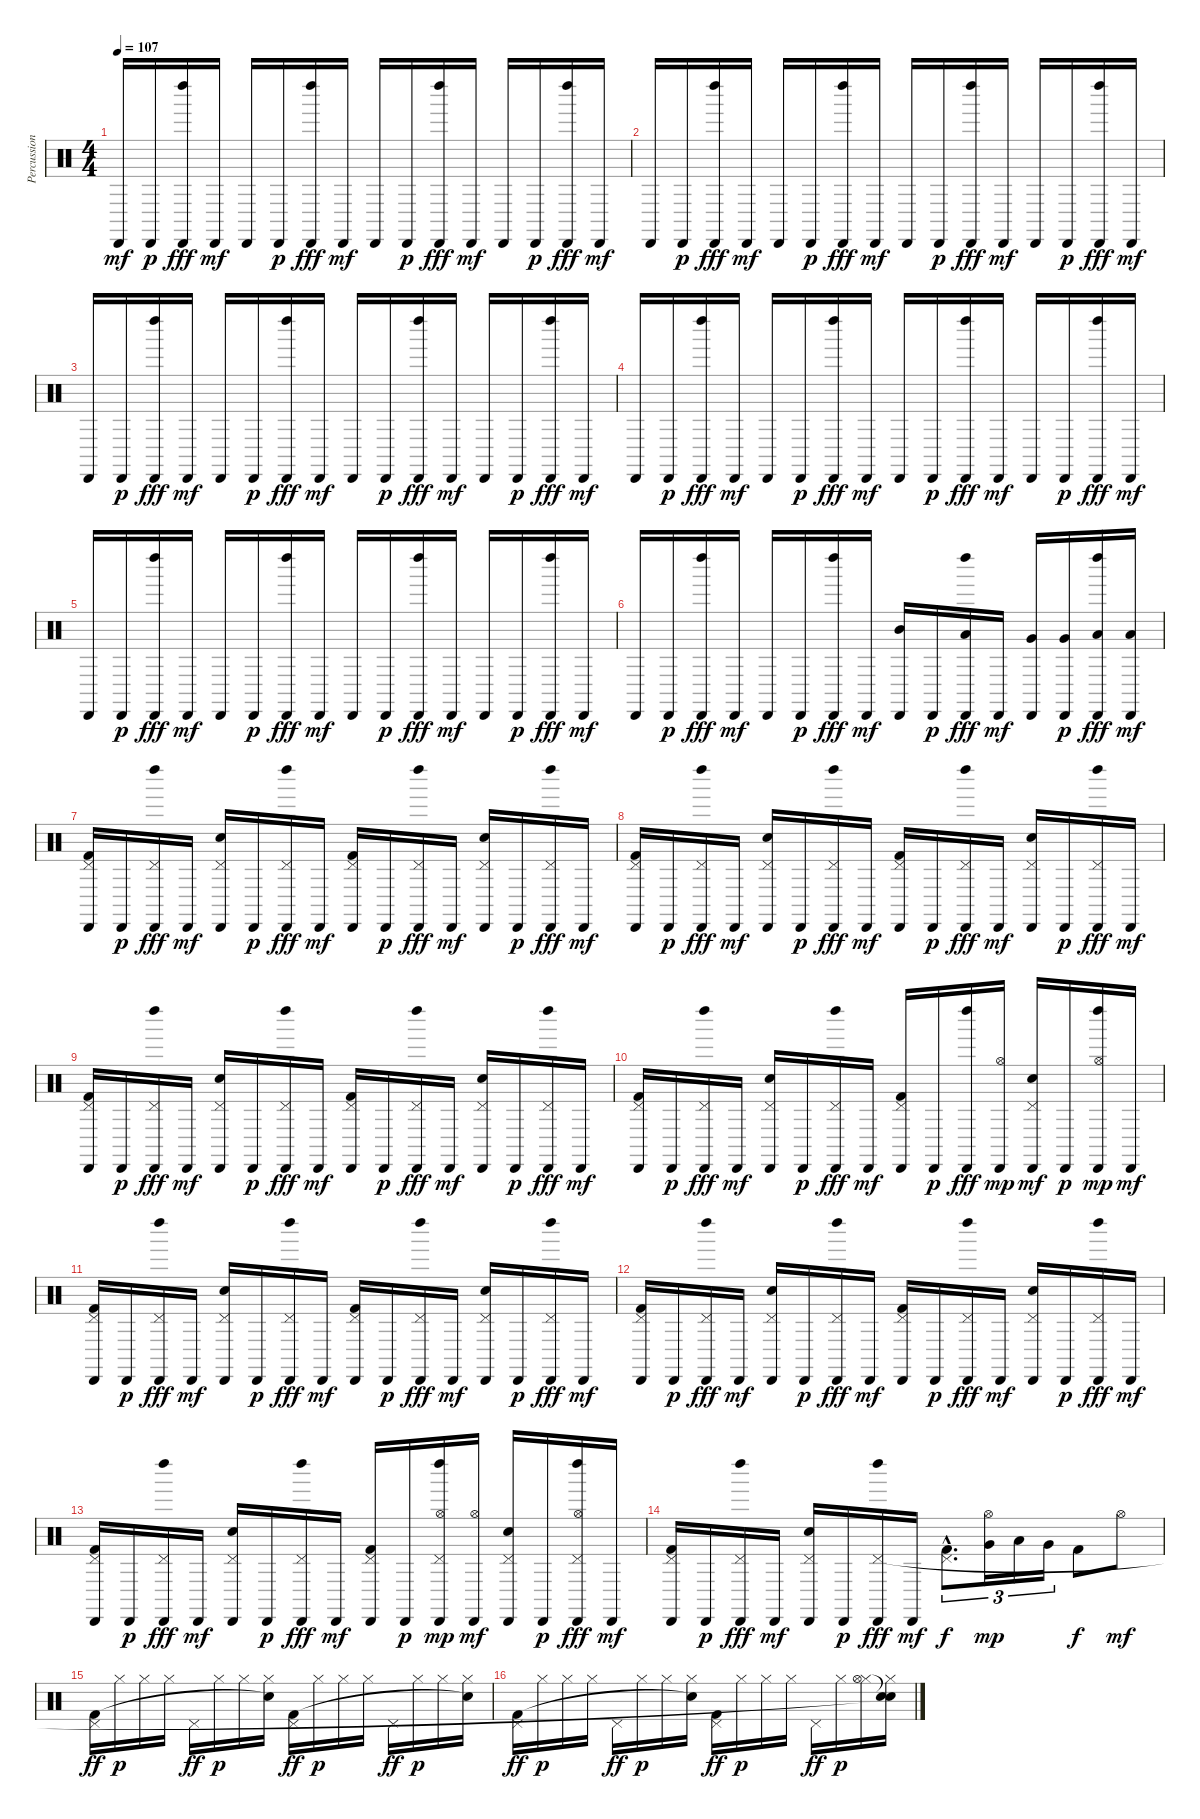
\track ("Percussions" "Percussion") {instrument percussion}
\staff {score}
\articulation defaults
\ts (4 4)
\tempo 107
\clef neutral
\ks c "Cabasa (hit)".16{dy mf} "Cabasa (hit)".16{dy p}
("Cabasa (hit)" "Left Maraca (hit)").16{dy fff} "Cabasa (hit)".16{dy mf} "Cabasa (hit)".16 "Cabasa (hit)".16{dy p} ("Cabasa (hit)" "Left Maraca (hit)").16{dy fff} "Cabasa (hit)".16{dy mf} "Cabasa (hit)".16 "Cabasa (hit)".16{dy p} ("Cabasa (hit)" "Left Maraca (hit)").16{dy fff} "Cabasa (hit)".16{dy mf} "Cabasa (hit)".16 "Cabasa (hit)".16{dy p} ("Cabasa (hit)" "Left Maraca (hit)").16{dy fff} "Cabasa (hit)".16{dy mf} |
"Cabasa (hit)".16 "Cabasa (hit)".16{dy p} ("Cabasa (hit)" "Left Maraca (hit)").16{dy fff} "Cabasa (hit)".16{dy mf} "Cabasa (hit)".16 "Cabasa (hit)".16{dy p} ("Cabasa (hit)" "Left Maraca (hit)").16{dy fff} "Cabasa (hit)".16{dy mf} "Cabasa (hit)".16 "Cabasa (hit)".16{dy p} ("Cabasa (hit)" "Left Maraca (hit)").16{dy fff} "Cabasa (hit)".16{dy mf} "Cabasa (hit)".16 "Cabasa (hit)".16{dy p} ("Cabasa (hit)" "Left Maraca (hit)").16{dy fff} "Cabasa (hit)".16{dy mf} |
"Cabasa (hit)".16 "Cabasa (hit)".16{dy p} ("Cabasa (hit)" "Left Maraca (hit)").16{dy fff} "Cabasa (hit)".16{dy mf} "Cabasa (hit)".16 "Cabasa (hit)".16{dy p} ("Cabasa (hit)" "Left Maraca (hit)").16{dy fff} "Cabasa (hit)".16{dy mf} "Cabasa (hit)".16 "Cabasa (hit)".16{dy p} ("Cabasa (hit)" "Left Maraca (hit)").16{dy fff} "Cabasa (hit)".16{dy mf} "Cabasa (hit)".16 "Cabasa (hit)".16{dy p} ("Cabasa (hit)" "Left Maraca (hit)").16{dy fff} "Cabasa (hit)".16{dy mf} |
"Cabasa (hit)".16 "Cabasa (hit)".16{dy p} ("Cabasa (hit)" "Left Maraca (hit)").16{dy fff} "Cabasa (hit)".16{dy mf} "Cabasa (hit)".16 "Cabasa (hit)".16{dy p} ("Cabasa (hit)" "Left Maraca (hit)").16{dy fff} "Cabasa (hit)".16{dy mf} "Cabasa (hit)".16 "Cabasa (hit)".16{dy p} ("Cabasa (hit)" "Left Maraca (hit)").16{dy fff} "Cabasa (hit)".16{dy mf} "Cabasa (hit)".16 "Cabasa (hit)".16{dy p} ("Cabasa (hit)" "Left Maraca (hit)").16{dy fff} "Cabasa (hit)".16{dy mf} |
"Cabasa (hit)".16 "Cabasa (hit)".16{dy p} ("Cabasa (hit)" "Left Maraca (hit)").16{dy fff} "Cabasa (hit)".16{dy mf} "Cabasa (hit)".16 "Cabasa (hit)".16{dy p} ("Cabasa (hit)" "Left Maraca (hit)").16{dy fff} "Cabasa (hit)".16{dy mf} "Cabasa (hit)".16 "Cabasa (hit)".16{dy p} ("Cabasa (hit)" "Left Maraca (hit)").16{dy fff} "Cabasa (hit)".16{dy mf} "Cabasa (hit)".16 "Cabasa (hit)".16{dy p} ("Cabasa (hit)" "Left Maraca (hit)").16{dy fff} "Cabasa (hit)".16{dy mf} |
"Cabasa (hit)".16 "Cabasa (hit)".16{dy p} ("Cabasa (hit)" "Left Maraca (hit)").16{dy fff} "Cabasa (hit)".16{dy mf} "Cabasa (hit)".16 "Cabasa (hit)".16{dy p} ("Cabasa (hit)" "Left Maraca (hit)").16{dy fff} "Cabasa (hit)".16{dy mf} ("Cabasa (hit)" "Mid Tom (hit)").16 "Cabasa (hit)".16{dy p} ("Cabasa (hit)" "Left Maraca (hit)" "Low Tom (hit)").16{dy fff} "Cabasa (hit)".16{dy mf} ("Cabasa (hit)" "Very Low Tom (hit)").16 ("Cabasa (hit)" "Very Low Tom (hit)").16{dy p} ("Cabasa (hit)" "Left Maraca (hit)" "Low Floor Tom (hit)").16{dy fff} ("Cabasa (hit)" "Low Floor Tom (hit)").16{dy mf} |
("Cabasa (hit)" "Pedal Hi-Hat (hit)" "Kick (hit) 2").16 "Cabasa (hit)".16{dy p} ("Cabasa (hit)" "Left Maraca (hit)" "Pedal Hi-Hat (hit)").16{dy fff} "Cabasa (hit)".16{dy mf} ("Cabasa (hit)" "Pedal Hi-Hat (hit)" "Snare (hit) 2").16 "Cabasa (hit)".16{dy p} ("Cabasa (hit)" "Left Maraca (hit)" "Pedal Hi-Hat (hit)").16{dy fff} "Cabasa (hit)".16{dy mf} ("Cabasa (hit)" "Pedal Hi-Hat (hit)" "Kick (hit) 2").16 "Cabasa (hit)".16{dy p} ("Cabasa (hit)" "Left Maraca (hit)" "Pedal Hi-Hat (hit)").16{dy fff} "Cabasa (hit)".16{dy mf} ("Cabasa (hit)" "Pedal Hi-Hat (hit)" "Snare (hit) 2").16 "Cabasa (hit)".16{dy p} ("Cabasa (hit)" "Left Maraca (hit)" "Pedal Hi-Hat (hit)").16{dy fff} "Cabasa (hit)".16{dy mf} |
("Cabasa (hit)" "Pedal Hi-Hat (hit)" "Kick (hit) 2").16 "Cabasa (hit)".16{dy p} ("Cabasa (hit)" "Left Maraca (hit)" "Pedal Hi-Hat (hit)").16{dy fff} "Cabasa (hit)".16{dy mf} ("Cabasa (hit)" "Pedal Hi-Hat (hit)" "Snare (hit) 2").16 "Cabasa (hit)".16{dy p} ("Cabasa (hit)" "Left Maraca (hit)" "Pedal Hi-Hat (hit)").16{dy fff} "Cabasa (hit)".16{dy mf} ("Cabasa (hit)" "Pedal Hi-Hat (hit)" "Kick (hit) 2").16 "Cabasa (hit)".16{dy p} ("Cabasa (hit)" "Left Maraca (hit)" "Pedal Hi-Hat (hit)").16{dy fff} "Cabasa (hit)".16{dy mf} ("Cabasa (hit)" "Pedal Hi-Hat (hit)" "Snare (hit) 2").16 "Cabasa (hit)".16{dy p} ("Cabasa (hit)" "Left Maraca (hit)" "Pedal Hi-Hat (hit)").16{dy fff} "Cabasa (hit)".16{dy mf} |
("Cabasa (hit)" "Pedal Hi-Hat (hit)" "Kick (hit) 2").16 "Cabasa (hit)".16{dy p} ("Cabasa (hit)" "Left Maraca (hit)" "Pedal Hi-Hat (hit)").16{dy fff} "Cabasa (hit)".16{dy mf} ("Cabasa (hit)" "Pedal Hi-Hat (hit)" "Snare (hit) 2").16 "Cabasa (hit)".16{dy p} ("Cabasa (hit)" "Left Maraca (hit)" "Pedal Hi-Hat (hit)").16{dy fff} "Cabasa (hit)".16{dy mf} ("Cabasa (hit)" "Pedal Hi-Hat (hit)" "Kick (hit) 2").16 "Cabasa (hit)".16{dy p} ("Cabasa (hit)" "Left Maraca (hit)" "Pedal Hi-Hat (hit)").16{dy fff} "Cabasa (hit)".16{dy mf} ("Cabasa (hit)" "Pedal Hi-Hat (hit)" "Snare (hit) 2").16 "Cabasa (hit)".16{dy p} ("Cabasa (hit)" "Left Maraca (hit)" "Pedal Hi-Hat (hit)").16{dy fff} "Cabasa (hit)".16{dy mf} |
("Cabasa (hit)" "Pedal Hi-Hat (hit)" "Kick (hit) 2").16 "Cabasa (hit)".16{dy p} ("Cabasa (hit)" "Left Maraca (hit)" "Pedal Hi-Hat (hit)").16{dy fff} "Cabasa (hit)".16{dy mf} ("Cabasa (hit)" "Pedal Hi-Hat (hit)" "Snare (hit) 2").16 "Cabasa (hit)".16{dy p} ("Cabasa (hit)" "Left Maraca (hit)" "Pedal Hi-Hat (hit)").16{dy fff} "Cabasa (hit)".16{dy mf} ("Cabasa (hit)" "Pedal Hi-Hat (hit)" "Kick (hit) 2").16 "Cabasa (hit)".16{dy p} ("Cabasa (hit)" "Left Maraca (hit)").16{dy fff} ("Cabasa (hit)" "Hi-Hat (open)").16{dy mp} ("Cabasa (hit)" "Pedal Hi-Hat (hit)" "Snare (hit) 2").16{dy mf} "Cabasa (hit)".16{dy p} ("Cabasa (hit)" "Left Maraca (hit)" "Hi-Hat (open)").16{dy mp} "Cabasa (hit)".16{dy mf} |
("Cabasa (hit)" "Pedal Hi-Hat (hit)" "Kick (hit) 2").16 "Cabasa (hit)".16{dy p} ("Cabasa (hit)" "Left Maraca (hit)" "Pedal Hi-Hat (hit)").16{dy fff} "Cabasa (hit)".16{dy mf} ("Cabasa (hit)" "Pedal Hi-Hat (hit)" "Snare (hit) 2").16 "Cabasa (hit)".16{dy p} ("Cabasa (hit)" "Left Maraca (hit)" "Pedal Hi-Hat (hit)").16{dy fff} "Cabasa (hit)".16{dy mf} ("Cabasa (hit)" "Pedal Hi-Hat (hit)" "Kick (hit) 2").16 "Cabasa (hit)".16{dy p} ("Cabasa (hit)" "Left Maraca (hit)" "Pedal Hi-Hat (hit)").16{dy fff} "Cabasa (hit)".16{dy mf} ("Cabasa (hit)" "Pedal Hi-Hat (hit)" "Snare (hit) 2").16 "Cabasa (hit)".16{dy p} ("Cabasa (hit)" "Left Maraca (hit)" "Pedal Hi-Hat (hit)").16{dy fff} "Cabasa (hit)".16{dy mf} |
("Cabasa (hit)" "Pedal Hi-Hat (hit)" "Kick (hit) 2").16 "Cabasa (hit)".16{dy p} ("Cabasa (hit)" "Left Maraca (hit)" "Pedal Hi-Hat (hit)").16{dy fff} "Cabasa (hit)".16{dy mf} ("Cabasa (hit)" "Pedal Hi-Hat (hit)" "Snare (hit) 2").16 "Cabasa (hit)".16{dy p} ("Cabasa (hit)" "Left Maraca (hit)" "Pedal Hi-Hat (hit)").16{dy fff} "Cabasa (hit)".16{dy mf} ("Cabasa (hit)" "Pedal Hi-Hat (hit)" "Kick (hit) 2").16 "Cabasa (hit)".16{dy p} ("Cabasa (hit)" "Left Maraca (hit)" "Pedal Hi-Hat (hit)").16{dy fff} "Cabasa (hit)".16{dy mf} ("Cabasa (hit)" "Pedal Hi-Hat (hit)" "Snare (hit) 2").16 "Cabasa (hit)".16{dy p} ("Cabasa (hit)" "Left Maraca (hit)" "Pedal Hi-Hat (hit)").16{dy fff} "Cabasa (hit)".16{dy mf} |
("Cabasa (hit)" "Pedal Hi-Hat (hit)" "Kick (hit) 2").16 "Cabasa (hit)".16{dy p} ("Cabasa (hit)" "Left Maraca (hit)" "Pedal Hi-Hat (hit)").16{dy fff} "Cabasa (hit)".16{dy mf} ("Cabasa (hit)" "Pedal Hi-Hat (hit)" "Snare (hit) 2").16 "Cabasa (hit)".16{dy p} ("Cabasa (hit)" "Left Maraca (hit)" "Pedal Hi-Hat (hit)").16{dy fff} "Cabasa (hit)".16{dy mf} ("Cabasa (hit)" "Pedal Hi-Hat (hit)" "Kick (hit) 2").16 "Cabasa (hit)".16{dy p} ("Cabasa (hit)" "Left Maraca (hit)" "Pedal Hi-Hat (hit)" "Hi-Hat (open)").16{dy mp} ("Cabasa (hit)" "Hi-Hat (open)").16{dy mf} ("Cabasa (hit)" "Pedal Hi-Hat (hit)" "Snare (hit) 2").16 "Cabasa (hit)".16{dy p} ("Cabasa (hit)" "Left Maraca (hit)" "Pedal Hi-Hat (hit)" "Hi-Hat (open)").16{dy fff} "Cabasa (hit)".16{dy mf} |
("Cabasa (hit)" "Pedal Hi-Hat (hit)" "Kick (hit) 2").16 "Cabasa (hit)".16{dy p} ("Cabasa (hit)" "Left Maraca (hit)" "Pedal Hi-Hat (hit)").16{dy fff} "Cabasa (hit)".16{dy mf} ("Cabasa (hit)" "Pedal Hi-Hat (hit)" "Snare (hit) 2").16 "Cabasa (hit)".16{dy p} ("Cabasa (hit)" "Left Maraca (hit)" "Pedal Hi-Hat (hit)").16{dy fff} "Cabasa (hit)".16{dy mf} ("Pedal Hi-Hat (hit)"{hac} "Kick (hit) 2"{hac}).8{d tu (3 2) dy f} ("Hi-Hat (open)" "Very Low Tom (hit)").16{tu (3 2) dy mp} "Low Floor Tom (hit)".16{tu (3 2)} "Very Low Tom (hit)".16{tu (3 2)} "Kick (hit) 2".8{dy f} "Hi-Hat (open)".8{dy mf} |
("Pedal Hi-Hat (hit)" "Kick (hit) 2").16{dy ff} "Hi-Hat (closed)".16{dy p} "Hi-Hat (closed)".16 "Hi-Hat (closed)".16 "Pedal Hi-Hat (hit)".16{dy ff} "Hi-Hat (closed)".16{dy p} "Hi-Hat (closed)".16 ("Hi-Hat (closed)" "Snare (hit)"{t}).16 ("Pedal Hi-Hat (hit)" "Kick (hit) 2").16{dy ff} "Hi-Hat (closed)".16{dy p} "Hi-Hat (closed)".16 "Hi-Hat (closed)".16 "Pedal Hi-Hat (hit)".16{dy ff} "Hi-Hat (closed)".16{dy p} "Hi-Hat (closed)".16 ("Hi-Hat (closed)" "Snare (hit)"{t}).16 |
("Pedal Hi-Hat (hit)" "Kick (hit) 2").16{dy ff} "Hi-Hat (closed)".16{dy p} "Hi-Hat (closed)".16 "Hi-Hat (closed)".16 "Pedal Hi-Hat (hit)".16{dy ff} "Hi-Hat (closed)".16{dy p} "Hi-Hat (closed)".16 ("Hi-Hat (closed)" "Snare (hit)"{t}).16 ("Pedal Hi-Hat (hit)" "Kick (hit) 2").16{dy ff} "Hi-Hat (closed)".16{dy p} "Hi-Hat (closed)".16 "Hi-Hat (closed)".16 "Pedal Hi-Hat (hit)".16{dy ff} "Hi-Hat (closed)".16{dy p} ("Hi-Hat (closed)" "Hi-Hat (open)").16 ("Hi-Hat (closed)" "Snare (hit)"{t} "Snare (hit)"{t}).16
